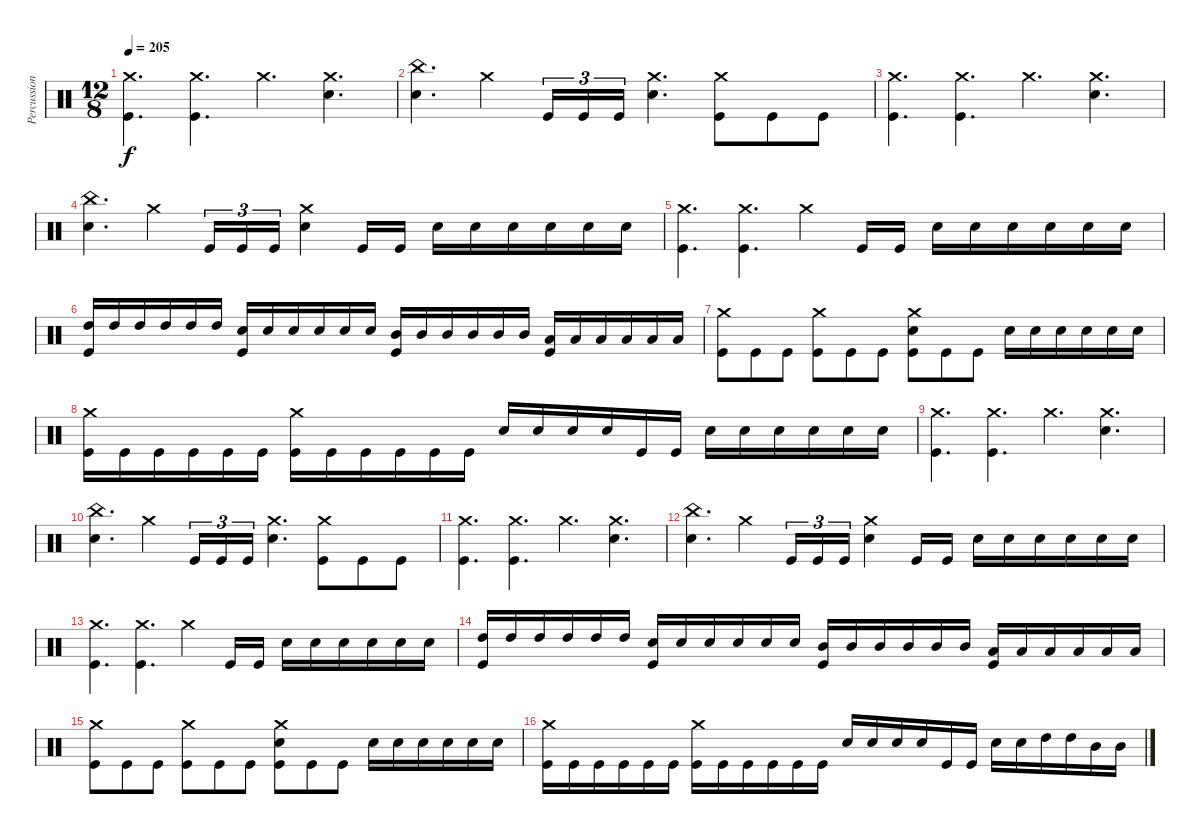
\track ("Percussion" "Percussion") {instrument percussion}
\staff {score}
\articulation defaults
\ts (12 8)
\tempo 205
\clef neutral
\ks c
("Crash medium (hit)" "Kick (hit)").4{d dy f} ("Crash medium (hit)" "Kick (hit)").4{d} "Crash medium (hit)".4{d} ("Crash medium (hit)" "Snare (hit) 2").4{d} |
("China (hit)" "Snare (hit) 2").4{d} "Crash medium (hit)".4 "Kick (hit)".16{tu (3 2)} "Kick (hit)".16{tu (3 2)} "Kick (hit)".16{tu (3 2)} ("Crash medium (hit)" "Snare (hit) 2").4{d} ("Crash medium (hit)" "Kick (hit)").8 "Kick (hit)".8 "Kick (hit)".8 |
("Crash medium (hit)" "Kick (hit)").4{d} ("Crash medium (hit)" "Kick (hit)").4{d} "Crash medium (hit)".4{d} ("Crash medium (hit)" "Snare (hit) 2").4{d} |
("China (hit)" "Snare (hit) 2").4{d} "Crash medium (hit)".4 "Kick (hit)".16{tu (3 2)} "Kick (hit)".16{tu (3 2)} "Kick (hit)".16{tu (3 2)} ("Crash medium (hit)" "Snare (hit) 2").4 "Kick (hit)".16 "Kick (hit)".16 "Snare (hit) 2".16 "Snare (hit) 2".16 "Snare (hit) 2".16 "Snare (hit) 2".16 "Snare (hit) 2".16 "Snare (hit) 2".16 |
("Crash medium (hit)" "Kick (hit)").4{d} ("Crash medium (hit)" "Kick (hit)").4{d} "Crash medium (hit)".4 "Kick (hit)".16 "Kick (hit)".16 "Snare (hit) 2".16 "Snare (hit) 2".16 "Snare (hit) 2".16 "Snare (hit) 2".16 "Snare (hit) 2".16 "Snare (hit) 2".16 |
("High Tom (hit)" "Kick (hit)").16 "High Tom (hit)".16 "High Tom (hit)".16 "High Tom (hit)".16 "High Tom (hit)".16 "High Tom (hit)".16 ("Snare (hit) 2" "Kick (hit)").16 "Snare (hit) 2".16 "Snare (hit) 2".16 "Snare (hit) 2".16 "Snare (hit) 2".16 "Snare (hit) 2".16 ("Mid Tom (hit)" "Kick (hit)").16 "Mid Tom (hit)".16 "Mid Tom (hit)".16 "Mid Tom (hit)".16 "Mid Tom (hit)".16 "Mid Tom (hit)".16 ("Low Tom (hit)" "Kick (hit)").16 "Low Tom (hit)".16 "Low Tom (hit)".16 "Low Tom (hit)".16 "Low Tom (hit)".16 "Low Tom (hit)".16 |
("Crash medium (hit)" "Kick (hit)").8 "Kick (hit)".8 "Kick (hit)".8 ("Crash medium (hit)" "Kick (hit)").8 "Kick (hit)".8 "Kick (hit)".8 ("Crash medium (hit)" "Snare (hit) 2" "Kick (hit)").8 "Kick (hit)".8 "Kick (hit)".8 "Snare (hit) 2".16 "Snare (hit) 2".16 "Snare (hit) 2".16 "Snare (hit) 2".16 "Snare (hit) 2".16 "Snare (hit) 2".16 |
("Crash medium (hit)" "Kick (hit)").16 "Kick (hit)".16 "Kick (hit)".16 "Kick (hit)".16 "Kick (hit)".16 "Kick (hit)".16 ("Crash medium (hit)" "Kick (hit)").16 "Kick (hit)".16 "Kick (hit)".16 "Kick (hit)".16 "Kick (hit)".16 "Kick (hit)".16 "Snare (hit) 2".16 "Snare (hit) 2".16 "Snare (hit) 2".16 "Snare (hit) 2".16 "Kick (hit)".16 "Kick (hit)".16 "Snare (hit) 2".16 "Snare (hit) 2".16 "Snare (hit) 2".16 "Snare (hit) 2".16 "Snare (hit) 2".16 "Snare (hit) 2".16 |
("Crash medium (hit)" "Kick (hit)").4{d} ("Crash medium (hit)" "Kick (hit)").4{d} "Crash medium (hit)".4{d} ("Crash medium (hit)" "Snare (hit) 2").4{d} |
("China (hit)" "Snare (hit) 2").4{d} "Crash medium (hit)".4 "Kick (hit)".16{tu (3 2)} "Kick (hit)".16{tu (3 2)} "Kick (hit)".16{tu (3 2)} ("Crash medium (hit)" "Snare (hit) 2").4{d} ("Crash medium (hit)" "Kick (hit)").8 "Kick (hit)".8 "Kick (hit)".8 |
("Crash medium (hit)" "Kick (hit)").4{d} ("Crash medium (hit)" "Kick (hit)").4{d} "Crash medium (hit)".4{d} ("Crash medium (hit)" "Snare (hit) 2").4{d} |
("China (hit)" "Snare (hit) 2").4{d} "Crash medium (hit)".4 "Kick (hit)".16{tu (3 2)} "Kick (hit)".16{tu (3 2)} "Kick (hit)".16{tu (3 2)} ("Crash medium (hit)" "Snare (hit) 2").4 "Kick (hit)".16 "Kick (hit)".16 "Snare (hit) 2".16 "Snare (hit) 2".16 "Snare (hit) 2".16 "Snare (hit) 2".16 "Snare (hit) 2".16 "Snare (hit) 2".16 |
("Crash medium (hit)" "Kick (hit)").4{d} ("Crash medium (hit)" "Kick (hit)").4{d} "Crash medium (hit)".4 "Kick (hit)".16 "Kick (hit)".16 "Snare (hit) 2".16 "Snare (hit) 2".16 "Snare (hit) 2".16 "Snare (hit) 2".16 "Snare (hit) 2".16 "Snare (hit) 2".16 |
("High Tom (hit)" "Kick (hit)").16 "High Tom (hit)".16 "High Tom (hit)".16 "High Tom (hit)".16 "High Tom (hit)".16 "High Tom (hit)".16 ("Snare (hit) 2" "Kick (hit)").16 "Snare (hit) 2".16 "Snare (hit) 2".16 "Snare (hit) 2".16 "Snare (hit) 2".16 "Snare (hit) 2".16 ("Mid Tom (hit)" "Kick (hit)").16 "Mid Tom (hit)".16 "Mid Tom (hit)".16 "Mid Tom (hit)".16 "Mid Tom (hit)".16 "Mid Tom (hit)".16 ("Low Tom (hit)" "Kick (hit)").16 "Low Tom (hit)".16 "Low Tom (hit)".16 "Low Tom (hit)".16 "Low Tom (hit)".16 "Low Tom (hit)".16 |
("Crash medium (hit)" "Kick (hit)").8 "Kick (hit)".8 "Kick (hit)".8 ("Crash medium (hit)" "Kick (hit)").8 "Kick (hit)".8 "Kick (hit)".8 ("Crash medium (hit)" "Snare (hit) 2" "Kick (hit)").8 "Kick (hit)".8 "Kick (hit)".8 "Snare (hit) 2".16 "Snare (hit) 2".16 "Snare (hit) 2".16 "Snare (hit) 2".16 "Snare (hit) 2".16 "Snare (hit) 2".16 |
("Crash medium (hit)" "Kick (hit)").16 "Kick (hit)".16 "Kick (hit)".16 "Kick (hit)".16 "Kick (hit)".16 "Kick (hit)".16 ("Crash medium (hit)" "Kick (hit)").16 "Kick (hit)".16 "Kick (hit)".16 "Kick (hit)".16 "Kick (hit)".16 "Kick (hit)".16 "Snare (hit) 2".16 "Snare (hit) 2".16 "Snare (hit) 2".16 "Snare (hit) 2".16 "Kick (hit)".16 "Kick (hit)".16 "Snare (hit) 2".16 "Snare (hit) 2".16 "High Tom (hit)".16 "High Tom (hit)".16 "Mid Tom (hit)".16 "Mid Tom (hit)".16
